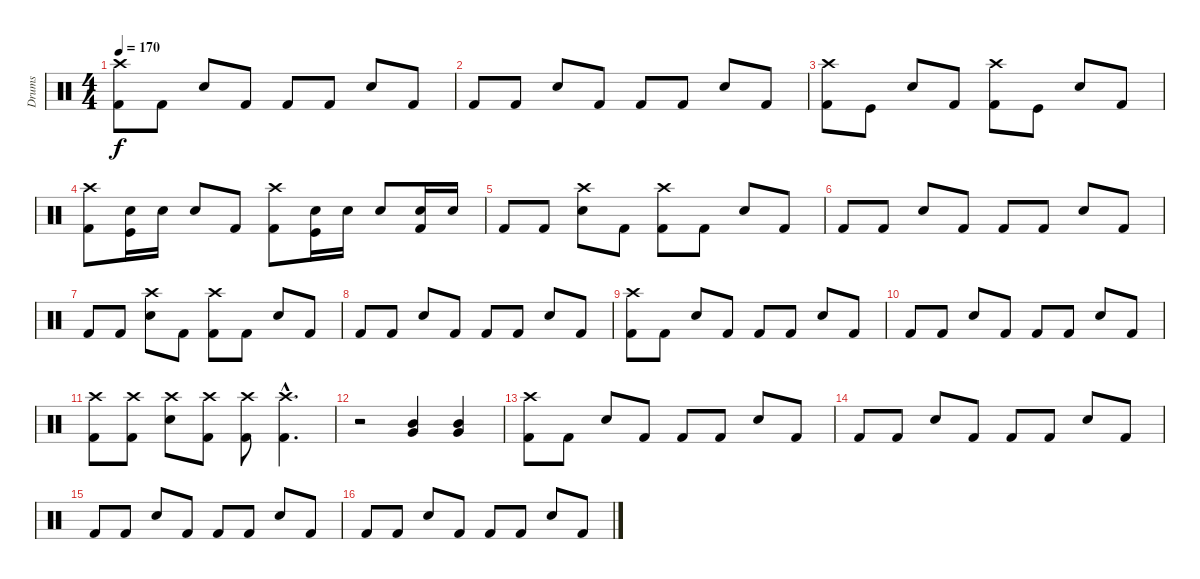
\track ("Drums" "Drums") {instrument percussion}
\staff {score}
\articulation defaults
\ts (4 4)
\tempo 170
\clef neutral
\ks c
("Kick (hit) 2" "Crash high (hit)").8{dy f} "Kick (hit) 2".8 "Snare (hit) 2".8 "Kick (hit) 2".8 "Kick (hit) 2".8 "Kick (hit) 2".8 "Snare (hit) 2".8 "Kick (hit) 2".8 |
"Kick (hit) 2".8 "Kick (hit) 2".8 "Snare (hit) 2".8 "Kick (hit) 2".8 "Kick (hit) 2".8 "Kick (hit) 2".8 "Snare (hit) 2".8 "Kick (hit) 2".8 |
("Kick (hit) 2" "Crash high (hit)").8 "Kick (hit)".8 "Snare (hit) 2".8 "Kick (hit) 2".8 ("Kick (hit) 2" "Crash high (hit)").8 "Kick (hit)".8 "Snare (hit) 2".8 "Kick (hit) 2".8 |
("Kick (hit) 2" "Crash high (hit)").8 ("Snare (hit) 2" "Kick (hit)").16 "Snare (hit) 2".16 "Snare (hit) 2".8 "Kick (hit) 2".8 ("Kick (hit) 2" "Crash high (hit)").8 ("Snare (hit) 2" "Kick (hit)").16 "Snare (hit) 2".16 "Snare (hit) 2".8 ("Snare (hit) 2" "Kick (hit) 2").16 "Snare (hit) 2".16 |
"Kick (hit) 2".8 "Kick (hit) 2".8 ("Snare (hit) 2" "Crash high (hit)").8 "Kick (hit) 2".8 ("Kick (hit) 2" "Crash high (hit)").8 "Kick (hit) 2".8 "Snare (hit) 2".8 "Kick (hit) 2".8 |
"Kick (hit) 2".8 "Kick (hit) 2".8 "Snare (hit) 2".8 "Kick (hit) 2".8 "Kick (hit) 2".8 "Kick (hit) 2".8 "Snare (hit) 2".8 "Kick (hit) 2".8 |
"Kick (hit) 2".8 "Kick (hit) 2".8 ("Snare (hit) 2" "Crash high (hit)").8 "Kick (hit) 2".8 ("Kick (hit) 2" "Crash high (hit)").8 "Kick (hit) 2".8 "Snare (hit) 2".8 "Kick (hit) 2".8 |
"Kick (hit) 2".8 "Kick (hit) 2".8 "Snare (hit) 2".8 "Kick (hit) 2".8 "Kick (hit) 2".8 "Kick (hit) 2".8 "Snare (hit) 2".8 "Kick (hit) 2".8 |
("Kick (hit) 2" "Crash high (hit)").8 "Kick (hit) 2".8 "Snare (hit) 2".8 "Kick (hit) 2".8 "Kick (hit) 2".8 "Kick (hit) 2".8 "Snare (hit) 2".8 "Kick (hit) 2".8 |
"Kick (hit) 2".8 "Kick (hit) 2".8 "Snare (hit) 2".8 "Kick (hit) 2".8 "Kick (hit) 2".8 "Kick (hit) 2".8 "Snare (hit) 2".8 "Kick (hit) 2".8 |
("Kick (hit) 2" "Crash high (hit)").8 ("Kick (hit) 2" "Crash high (hit)").8 ("Snare (hit) 2" "Crash high (hit)").8 ("Kick (hit) 2" "Crash high (hit)").8 ("Kick (hit) 2" "Crash high (hit)").8 ("Kick (hit) 2"{hac} "Crash high (hit)"{hac}).4{d} |
r.2 ("Mid Tom (hit)" "Very Low Tom (hit)").4 ("Mid Tom (hit)" "Very Low Tom (hit)").4 |
("Kick (hit) 2" "Crash high (hit)").8 "Kick (hit) 2".8 "Snare (hit) 2".8 "Kick (hit) 2".8 "Kick (hit) 2".8 "Kick (hit) 2".8 "Snare (hit) 2".8 "Kick (hit) 2".8 |
"Kick (hit) 2".8 "Kick (hit) 2".8 "Snare (hit) 2".8 "Kick (hit) 2".8 "Kick (hit) 2".8 "Kick (hit) 2".8 "Snare (hit) 2".8 "Kick (hit) 2".8 |
"Kick (hit) 2".8 "Kick (hit) 2".8 "Snare (hit) 2".8 "Kick (hit) 2".8 "Kick (hit) 2".8 "Kick (hit) 2".8 "Snare (hit) 2".8 "Kick (hit) 2".8 |
"Kick (hit) 2".8 "Kick (hit) 2".8 "Snare (hit) 2".8 "Kick (hit) 2".8 "Kick (hit) 2".8 "Kick (hit) 2".8 "Snare (hit) 2".8 "Kick (hit) 2".8
